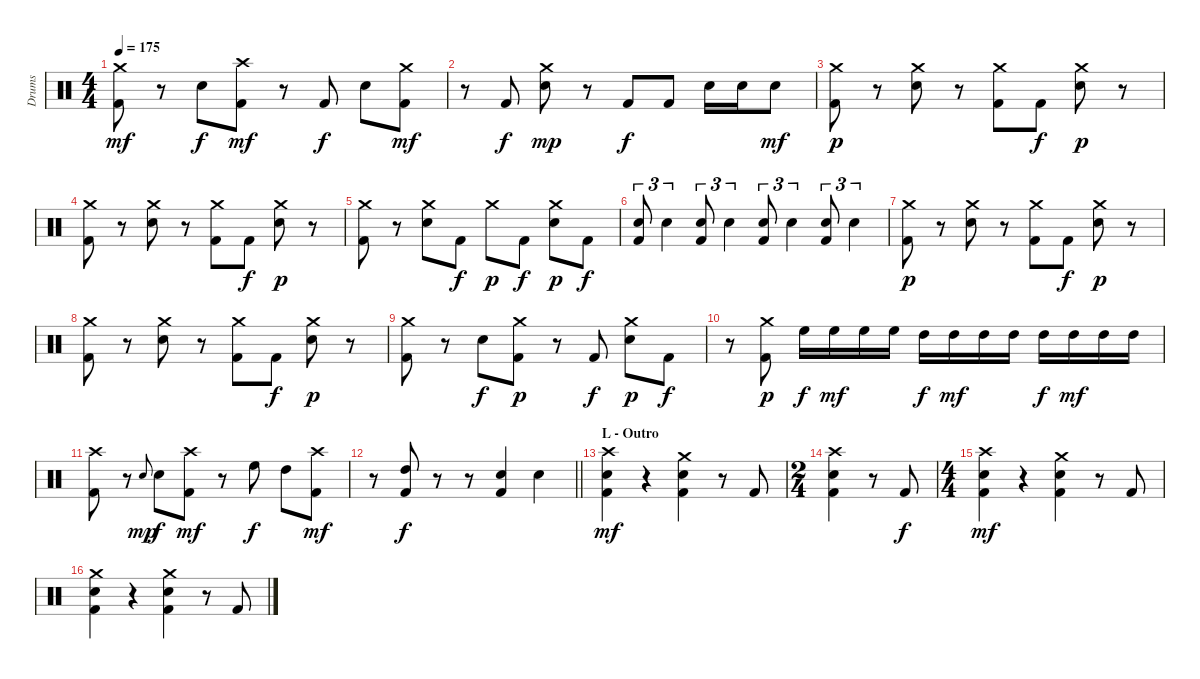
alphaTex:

\track ("Drums" "Drums") {instrument percussion}
\staff {score}
\articulation defaults
\ts (4 4)
\tempo 175
\clef neutral
\ks c
("Crash medium (hit)" "Kick (hit) 2").8{dy mf} r.8 "Electric Snare (hit)".8{dy f} ("Crash high (hit)" "Kick (hit) 2").8{dy mf} r.8 "Kick (hit) 2".8{dy f} "Electric Snare (hit)".8 ("Crash medium (hit)" "Kick (hit) 2").8{dy mf} |
r.8 "Kick (hit) 2".8{dy f} ("Crash medium (hit)" "Electric Snare (hit)").8{dy mp} r.8 "Kick (hit) 2".8{dy f} "Kick (hit) 2".8 "Electric Snare (hit)".16 "Electric Snare (hit)".16 "Electric Snare (hit)".8{dy mf} |
("Crash medium (hit)" "Kick (hit) 2").8{dy p} r.8 ("Crash medium (hit)" "Electric Snare (hit)").8 r.8 ("Crash medium (hit)" "Kick (hit) 2").8 "Kick (hit) 2".8{dy f} ("Crash medium (hit)" "Electric Snare (hit)").8{dy p} r.8 |
("Crash medium (hit)" "Kick (hit) 2").8 r.8 ("Crash medium (hit)" "Electric Snare (hit)").8 r.8 ("Crash medium (hit)" "Kick (hit) 2").8 "Kick (hit) 2".8{dy f} ("Crash medium (hit)" "Electric Snare (hit)").8{dy p} r.8 |
("Crash medium (hit)" "Kick (hit) 2").8 r.8 ("Crash medium (hit)" "Electric Snare (hit)").8 "Kick (hit) 2".8{dy f} "Crash medium (hit)".8{dy p} "Kick (hit) 2".8{dy f} ("Crash medium (hit)" "Electric Snare (hit)").8{dy p} "Kick (hit) 2".8{dy f} |
("Electric Snare (hit)" "Kick (hit) 2").8{tu (3 2)} "Electric Snare (hit)".4{tu (3 2)} ("Electric Snare (hit)" "Kick (hit) 2").8{tu (3 2)} "Electric Snare (hit)".4{tu (3 2)} ("Electric Snare (hit)" "Kick (hit) 2").8{tu (3 2)} "Electric Snare (hit)".4{tu (3 2)} ("Electric Snare (hit)" "Kick (hit) 2").8{tu (3 2)} "Electric Snare (hit)".4{tu (3 2)} |
("Crash medium (hit)" "Kick (hit) 2").8{dy p} r.8 ("Crash medium (hit)" "Electric Snare (hit)").8 r.8 ("Crash medium (hit)" "Kick (hit) 2").8 "Kick (hit) 2".8{dy f} ("Crash medium (hit)" "Electric Snare (hit)").8{dy p} r.8 |
("Crash medium (hit)" "Kick (hit) 2").8 r.8 ("Crash medium (hit)" "Electric Snare (hit)").8 r.8 ("Crash medium (hit)" "Kick (hit) 2").8 "Kick (hit) 2".8{dy f} ("Crash medium (hit)" "Electric Snare (hit)").8{dy p} r.8 |
("Crash medium (hit)" "Kick (hit) 2").8 r.8 "Electric Snare (hit)".8{dy f} ("Crash medium (hit)" "Kick (hit) 2").8{dy p} r.8 "Kick (hit) 2".8{dy f} ("Crash medium (hit)" "Electric Snare (hit)").8{dy p} "Kick (hit) 2".8{dy f} |
r.8 ("Crash medium (hit)" "Kick (hit) 2").8{dy p} "High Floor Tom (hit)".16{dy f} "High Floor Tom (hit)".16{dy mf} "High Floor Tom (hit)".16 "High Floor Tom (hit)".16 "High Tom (hit)".16{dy f} "High Tom (hit)".16{dy mf} "High Tom (hit)".16 "High Tom (hit)".16 "High Tom (hit)".16{dy f} "High Tom (hit)".16{dy mf} "High Tom (hit)".16 "High Tom (hit)".16 |
("Crash high (hit)" "Kick (hit) 2").8 r.8 "Electric Snare (hit)".8{gr onbeat dy mp} "Electric Snare (hit)".8{dy f} ("Crash high (hit)" "Kick (hit) 2").8{dy mf} r.8 "High Floor Tom (hit)".8{dy f} "High Tom (hit)".8 ("Crash high (hit)" "Kick (hit) 2").8{dy mf} |
\barLineRight lightlight
r.8 ("High Tom (hit)" "Kick (hit) 2").8{dy f} r.8 r.8 ("Electric Snare (hit)" "Kick (hit) 2").4 "Electric Snare (hit)".4 |
\section ("" "L - Outro")
("Crash high (hit)" "Electric Snare (hit)" "Kick (hit) 2").4{dy mf} r.4 ("Crash medium (hit)" "Electric Snare (hit)" "Kick (hit) 2").4 r.8 "Kick (hit) 2".8 |
\ts (2 4)
("Crash high (hit)" "Electric Snare (hit)" "Kick (hit) 2").4 r.8 "Kick (hit) 2".8{dy f} |
\ts (4 4)
("Crash high (hit)" "Electric Snare (hit)" "Kick (hit) 2").4{dy mf} r.4 ("Crash medium (hit)" "Electric Snare (hit)" "Kick (hit) 2").4 r.8 "Kick (hit) 2".8 |
("Crash medium (hit)" "Electric Snare (hit)" "Kick (hit) 2").4 r.4 ("Crash medium (hit)" "Electric Snare (hit)" "Kick (hit) 2").4 r.8 "Kick (hit) 2".8
